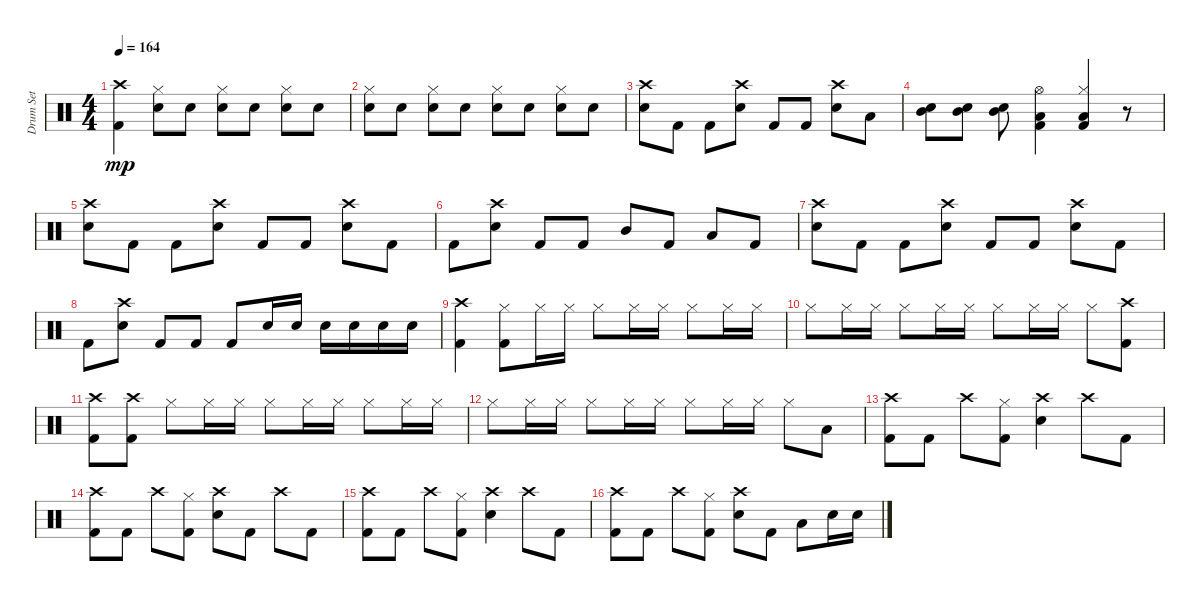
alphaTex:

\track ("Drum Set" "Drum Set") {instrument percussion}
\staff {score}
\articulation defaults
\ts (4 4)
\tempo 164
\clef neutral
\ks c
("Kick (hit) 2" "Crash high (hit)").4{dy mp} ("Snare (hit) 2" "Hi-Hat (closed)").8 "Snare (hit) 2".8 ("Snare (hit) 2" "Hi-Hat (closed)").8 "Snare (hit) 2".8 ("Snare (hit) 2" "Hi-Hat (closed)").8 "Snare (hit) 2".8 |
("Snare (hit) 2" "Hi-Hat (closed)").8 "Snare (hit) 2".8 ("Snare (hit) 2" "Hi-Hat (closed)").8 "Snare (hit) 2".8 ("Snare (hit) 2" "Hi-Hat (closed)").8 "Snare (hit) 2".8 ("Snare (hit) 2" "Hi-Hat (closed)").8 "Snare (hit) 2".8 |
("Snare (hit) 2" "Crash high (hit)").8 "Kick (hit) 2".8 "Kick (hit) 2".8 ("Snare (hit) 2" "Crash high (hit)").8 "Kick (hit) 2".8 "Kick (hit) 2".8 ("Snare (hit) 2" "Crash high (hit)").8 "Low Tom (hit)".8 |
("Snare (hit) 2" "Mid Tom (hit)").8 ("Snare (hit) 2" "Mid Tom (hit)").8 ("Snare (hit) 2" "Mid Tom (hit)").8 ("Kick (hit) 2" "Low Tom (hit)" "Hi-Hat (open)").4 ("Kick (hit) 2" "Low Tom (hit)" "Hi-Hat (closed)").4 r.8 |
("Snare (hit) 2" "Crash high (hit)").8 "Kick (hit) 2".8 "Kick (hit) 2".8 ("Snare (hit) 2" "Crash high (hit)").8 "Kick (hit) 2".8 "Kick (hit) 2".8 ("Snare (hit) 2" "Crash high (hit)").8 "Kick (hit) 2".8 |
"Kick (hit) 2".8 ("Snare (hit) 2" "Crash high (hit)").8 "Kick (hit) 2".8 "Kick (hit) 2".8 "Mid Tom (hit)".8 "Kick (hit) 2".8 "Low Tom (hit)".8 "Kick (hit) 2".8 |
("Snare (hit) 2" "Crash high (hit)").8 "Kick (hit) 2".8 "Kick (hit) 2".8 ("Snare (hit) 2" "Crash high (hit)").8 "Kick (hit) 2".8 "Kick (hit) 2".8 ("Snare (hit) 2" "Crash high (hit)").8 "Kick (hit) 2".8 |
"Kick (hit) 2".8 ("Snare (hit) 2" "Crash high (hit)").8 "Kick (hit) 2".8 "Kick (hit) 2".8 "Kick (hit) 2".8 "Snare (hit) 2".16 "Snare (hit) 2".16 "Snare (hit) 2".16 "Snare (hit) 2".16 "Snare (hit) 2".16 "Snare (hit) 2".16 |
("Kick (hit) 2" "Crash high (hit)").4 ("Kick (hit) 2" "Hi-Hat (closed)").8 "Hi-Hat (closed)".16 "Hi-Hat (closed)".16 "Hi-Hat (closed)".8 "Hi-Hat (closed)".16 "Hi-Hat (closed)".16 "Hi-Hat (closed)".8 "Hi-Hat (closed)".16 "Hi-Hat (closed)".16 |
"Hi-Hat (closed)".8 "Hi-Hat (closed)".16 "Hi-Hat (closed)".16 "Hi-Hat (closed)".8 "Hi-Hat (closed)".16 "Hi-Hat (closed)".16 "Hi-Hat (closed)".8 "Hi-Hat (closed)".16 "Hi-Hat (closed)".16 "Hi-Hat (closed)".8 ("Kick (hit) 2" "Crash high (hit)").8 |
("Kick (hit) 2" "Crash high (hit)").8 ("Kick (hit) 2" "Crash high (hit)").8 "Hi-Hat (closed)".8 "Hi-Hat (closed)".16 "Hi-Hat (closed)".16 "Hi-Hat (closed)".8 "Hi-Hat (closed)".16 "Hi-Hat (closed)".16 "Hi-Hat (closed)".8 "Hi-Hat (closed)".16 "Hi-Hat (closed)".16 |
"Hi-Hat (closed)".8 "Hi-Hat (closed)".16 "Hi-Hat (closed)".16 "Hi-Hat (closed)".8 "Hi-Hat (closed)".16 "Hi-Hat (closed)".16 "Hi-Hat (closed)".8 "Hi-Hat (closed)".16 "Hi-Hat (closed)".16 "Hi-Hat (closed)".8 "Low Tom (hit)".8 |
("Kick (hit) 2" "Crash high (hit)").8 "Kick (hit) 2".8 "Crash high (hit)".8 ("Kick (hit) 2" "Hi-Hat (closed)").8 ("Snare (hit) 2" "Crash high (hit)").4 "Crash high (hit)".8 "Kick (hit) 2".8 |
("Kick (hit) 2" "Crash high (hit)").8 "Kick (hit) 2".8 "Crash high (hit)".8 ("Kick (hit) 2" "Hi-Hat (closed)").8 ("Snare (hit) 2" "Crash high (hit)").8 "Kick (hit) 2".8 "Crash high (hit)".8 "Kick (hit) 2".8 |
("Kick (hit) 2" "Crash high (hit)").8 "Kick (hit) 2".8 "Crash high (hit)".8 ("Kick (hit) 2" "Hi-Hat (closed)").8 ("Snare (hit) 2" "Crash high (hit)").4 "Crash high (hit)".8 "Kick (hit) 2".8 |
("Kick (hit) 2" "Crash high (hit)").8 "Kick (hit) 2".8 "Crash high (hit)".8 ("Kick (hit) 2" "Hi-Hat (closed)").8 ("Snare (hit) 2" "Crash high (hit)").8 "Kick (hit) 2".8 "Low Tom (hit)".8 "Snare (hit) 2".16 "Snare (hit) 2".16
